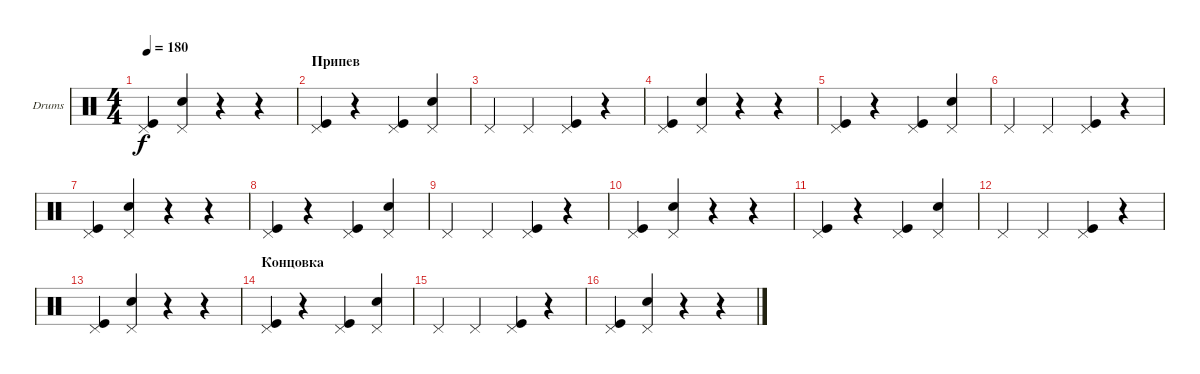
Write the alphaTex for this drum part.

\defaultSystemsLayout 4
\bracketExtendMode groupsimilarinstruments
\firstSystemTrackNameOrientation horizontal
\otherSystemsTrackNameOrientation horizontal
\track ("Георгий Гурьянов" "Drums") {instrument percussion}
\staff {score}
\articulation defaults
\ts (4 4)
\tempo 180
\clef neutral
\ks c
("Pedal Hi-Hat (hit)" "Kick (hit)").4{dy f} ("Pedal Hi-Hat (hit)" "Snare (hit) 2").4 r.4 r.4 |
\section ("" "Припев")
("Pedal Hi-Hat (hit)" "Kick (hit)").4 r.4 ("Pedal Hi-Hat (hit)" "Kick (hit)").4 ("Pedal Hi-Hat (hit)" "Snare (hit) 2").4 |
"Pedal Hi-Hat (hit)".4 "Pedal Hi-Hat (hit)".4 ("Pedal Hi-Hat (hit)" "Kick (hit)").4 r.4 |
("Pedal Hi-Hat (hit)" "Kick (hit)").4 ("Pedal Hi-Hat (hit)" "Snare (hit) 2").4 r.4 r.4 |
("Pedal Hi-Hat (hit)" "Kick (hit)").4 r.4 ("Pedal Hi-Hat (hit)" "Kick (hit)").4 ("Pedal Hi-Hat (hit)" "Snare (hit) 2").4 |
"Pedal Hi-Hat (hit)".4 "Pedal Hi-Hat (hit)".4 ("Pedal Hi-Hat (hit)" "Kick (hit)").4 r.4 |
("Pedal Hi-Hat (hit)" "Kick (hit)").4 ("Pedal Hi-Hat (hit)" "Snare (hit) 2").4 r.4 r.4 |
("Pedal Hi-Hat (hit)" "Kick (hit)").4 r.4 ("Pedal Hi-Hat (hit)" "Kick (hit)").4 ("Pedal Hi-Hat (hit)" "Snare (hit) 2").4 |
"Pedal Hi-Hat (hit)".4 "Pedal Hi-Hat (hit)".4 ("Pedal Hi-Hat (hit)" "Kick (hit)").4 r.4 |
("Pedal Hi-Hat (hit)" "Kick (hit)").4 ("Pedal Hi-Hat (hit)" "Snare (hit) 2").4 r.4 r.4 |
("Pedal Hi-Hat (hit)" "Kick (hit)").4 r.4 ("Pedal Hi-Hat (hit)" "Kick (hit)").4 ("Pedal Hi-Hat (hit)" "Snare (hit) 2").4 |
"Pedal Hi-Hat (hit)".4 "Pedal Hi-Hat (hit)".4 ("Pedal Hi-Hat (hit)" "Kick (hit)").4 r.4 |
("Pedal Hi-Hat (hit)" "Kick (hit)").4 ("Pedal Hi-Hat (hit)" "Snare (hit) 2").4 r.4 r.4 |
\section ("" "Концовка")
("Pedal Hi-Hat (hit)" "Kick (hit)").4 r.4 ("Pedal Hi-Hat (hit)" "Kick (hit)").4 ("Pedal Hi-Hat (hit)" "Snare (hit) 2").4 |
"Pedal Hi-Hat (hit)".4 "Pedal Hi-Hat (hit)".4 ("Pedal Hi-Hat (hit)" "Kick (hit)").4 r.4 |
("Pedal Hi-Hat (hit)" "Kick (hit)").4 ("Pedal Hi-Hat (hit)" "Snare (hit) 2").4 r.4 r.4
